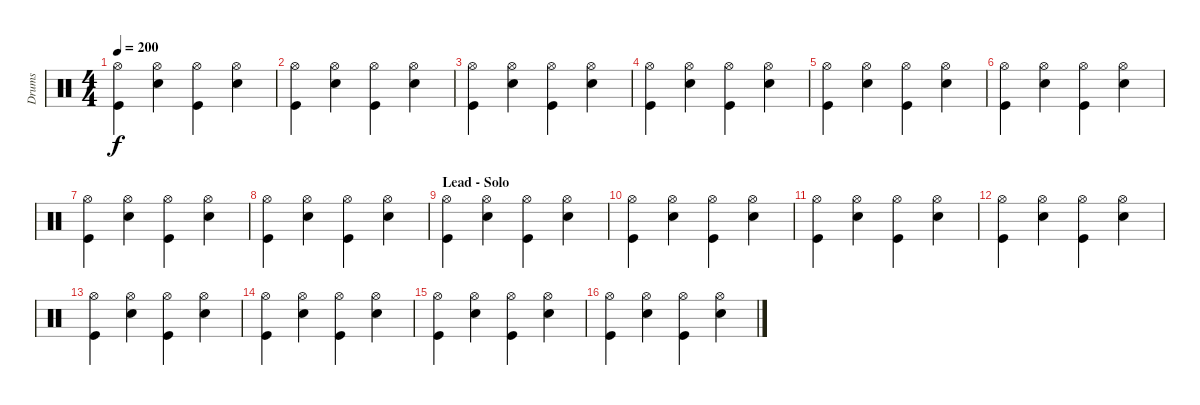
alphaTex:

\track ("Drums" "Drums") {instrument percussion}
\staff {score}
\articulation defaults
\ts (4 4)
\tempo 200
\clef neutral
\ks c
("Hi-Hat (open)" "Kick (hit)").4{dy f} ("Hi-Hat (open)" "Snare (hit) 2").4 ("Hi-Hat (open)" "Kick (hit)").4 ("Hi-Hat (open)" "Snare (hit) 2").4 |
("Hi-Hat (open)" "Kick (hit)").4 ("Hi-Hat (open)" "Snare (hit) 2").4 ("Hi-Hat (open)" "Kick (hit)").4 ("Hi-Hat (open)" "Snare (hit) 2").4 |
("Hi-Hat (open)" "Kick (hit)").4 ("Hi-Hat (open)" "Snare (hit) 2").4 ("Hi-Hat (open)" "Kick (hit)").4 ("Hi-Hat (open)" "Snare (hit) 2").4 |
("Hi-Hat (open)" "Kick (hit)").4 ("Hi-Hat (open)" "Snare (hit) 2").4 ("Hi-Hat (open)" "Kick (hit)").4 ("Hi-Hat (open)" "Snare (hit) 2").4 |
("Hi-Hat (open)" "Kick (hit)").4 ("Hi-Hat (open)" "Snare (hit) 2").4 ("Hi-Hat (open)" "Kick (hit)").4 ("Hi-Hat (open)" "Snare (hit) 2").4 |
("Hi-Hat (open)" "Kick (hit)").4 ("Hi-Hat (open)" "Snare (hit) 2").4 ("Hi-Hat (open)" "Kick (hit)").4 ("Hi-Hat (open)" "Snare (hit) 2").4 |
("Hi-Hat (open)" "Kick (hit)").4 ("Hi-Hat (open)" "Snare (hit) 2").4 ("Hi-Hat (open)" "Kick (hit)").4 ("Hi-Hat (open)" "Snare (hit) 2").4 |
("Hi-Hat (open)" "Kick (hit)").4 ("Hi-Hat (open)" "Snare (hit) 2").4 ("Hi-Hat (open)" "Kick (hit)").4 ("Hi-Hat (open)" "Snare (hit) 2").4 |
\section ("" "Lead - Solo")
("Hi-Hat (open)" "Kick (hit)").4 ("Hi-Hat (open)" "Snare (hit) 2").4 ("Hi-Hat (open)" "Kick (hit)").4 ("Hi-Hat (open)" "Snare (hit) 2").4 |
("Hi-Hat (open)" "Kick (hit)").4 ("Hi-Hat (open)" "Snare (hit) 2").4 ("Hi-Hat (open)" "Kick (hit)").4 ("Hi-Hat (open)" "Snare (hit) 2").4 |
("Hi-Hat (open)" "Kick (hit)").4 ("Hi-Hat (open)" "Snare (hit) 2").4 ("Hi-Hat (open)" "Kick (hit)").4 ("Hi-Hat (open)" "Snare (hit) 2").4 |
("Hi-Hat (open)" "Kick (hit)").4 ("Hi-Hat (open)" "Snare (hit) 2").4 ("Hi-Hat (open)" "Kick (hit)").4 ("Hi-Hat (open)" "Snare (hit) 2").4 |
("Hi-Hat (open)" "Kick (hit)").4 ("Hi-Hat (open)" "Snare (hit) 2").4 ("Hi-Hat (open)" "Kick (hit)").4 ("Hi-Hat (open)" "Snare (hit) 2").4 |
("Hi-Hat (open)" "Kick (hit)").4 ("Hi-Hat (open)" "Snare (hit) 2").4 ("Hi-Hat (open)" "Kick (hit)").4 ("Hi-Hat (open)" "Snare (hit) 2").4 |
("Hi-Hat (open)" "Kick (hit)").4 ("Hi-Hat (open)" "Snare (hit) 2").4 ("Hi-Hat (open)" "Kick (hit)").4 ("Hi-Hat (open)" "Snare (hit) 2").4 |
("Hi-Hat (open)" "Kick (hit)").4 ("Hi-Hat (open)" "Snare (hit) 2").4 ("Hi-Hat (open)" "Kick (hit)").4 ("Hi-Hat (open)" "Snare (hit) 2").4
